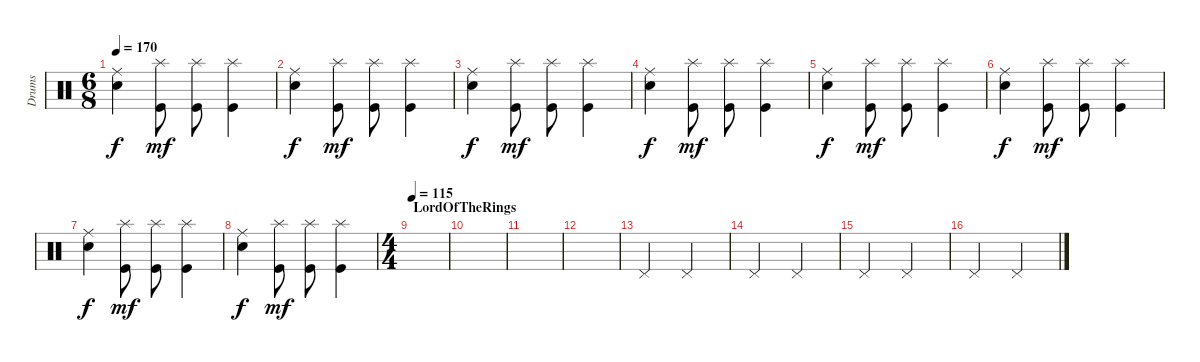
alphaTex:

\track ("Drums" "Drums") {instrument percussion}
\staff {score}
\articulation defaults
\ts (6 8)
\tempo 170
\clef neutral
\ks c
("Snare (hit) 2" "Ride (middle)").4{dy f} ("Kick (hit)" "Splash (hit)").8{dy mf} ("Kick (hit)" "Splash (hit)").8 ("Kick (hit)" "Splash (hit)").4 |
("Snare (hit) 2" "Ride (middle)").4{dy f} ("Kick (hit)" "Splash (hit)").8{dy mf} ("Kick (hit)" "Splash (hit)").8 ("Kick (hit)" "Splash (hit)").4 |
("Snare (hit) 2" "Ride (middle)").4{dy f} ("Kick (hit)" "Splash (hit)").8{dy mf} ("Kick (hit)" "Splash (hit)").8 ("Kick (hit)" "Splash (hit)").4 |
("Snare (hit) 2" "Ride (middle)").4{dy f} ("Kick (hit)" "Splash (hit)").8{dy mf} ("Kick (hit)" "Splash (hit)").8 ("Kick (hit)" "Splash (hit)").4 |
("Snare (hit) 2" "Ride (middle)").4{dy f} ("Kick (hit)" "Splash (hit)").8{dy mf} ("Kick (hit)" "Splash (hit)").8 ("Kick (hit)" "Splash (hit)").4 |
("Snare (hit) 2" "Ride (middle)").4{dy f} ("Kick (hit)" "Splash (hit)").8{dy mf} ("Kick (hit)" "Splash (hit)").8 ("Kick (hit)" "Splash (hit)").4 |
("Snare (hit) 2" "Ride (middle)").4{dy f} ("Kick (hit)" "Splash (hit)").8{dy mf} ("Kick (hit)" "Splash (hit)").8 ("Kick (hit)" "Splash (hit)").4 |
("Snare (hit) 2" "Ride (middle)").4{dy f} ("Kick (hit)" "Splash (hit)").8{dy mf} ("Kick (hit)" "Splash (hit)").8 ("Kick (hit)" "Splash (hit)").4 |
\ts (4 4)
\section ("" "LordOfTheRings")
\tempo 115
|
|
|
|
"Pedal Hi-Hat (hit)".2 "Pedal Hi-Hat (hit)".2 |
"Pedal Hi-Hat (hit)".2 "Pedal Hi-Hat (hit)".2 |
"Pedal Hi-Hat (hit)".2 "Pedal Hi-Hat (hit)".2 |
"Pedal Hi-Hat (hit)".2 "Pedal Hi-Hat (hit)".2
